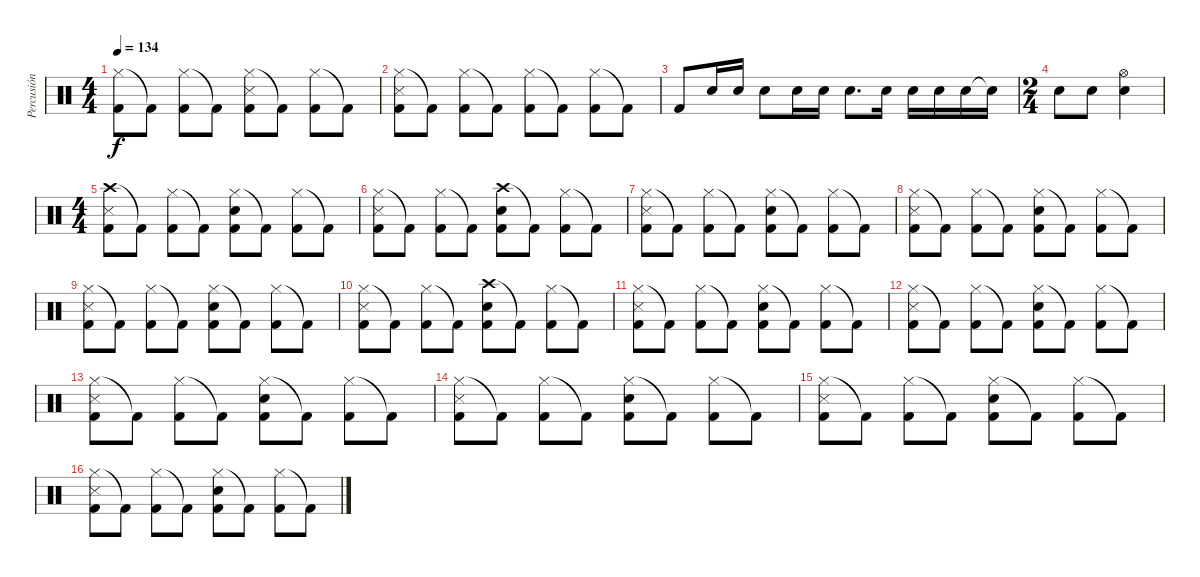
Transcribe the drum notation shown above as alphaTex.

\track ("Percusión" "Percusión") {instrument percussion}
\staff {score}
\articulation defaults
\ts (4 4)
\tempo 134
\clef neutral
\ks c
("Hi-Hat (closed)" "Kick (hit) 2").8{dy f} "Kick (hit) 2"{t}.8 ("Hi-Hat (closed)" "Kick (hit) 2").8 "Kick (hit) 2"{t}.8 ("Hi-Hat (closed)" "Snare (side stick) 3" "Kick (hit) 2").8 "Kick (hit) 2"{t}.8 ("Hi-Hat (closed)" "Kick (hit) 2").8 "Kick (hit) 2"{t}.8 |
("Hi-Hat (closed)" "Snare (side stick) 3" "Kick (hit) 2").8 "Kick (hit) 2"{t}.8 ("Hi-Hat (closed)" "Kick (hit) 2").8 "Kick (hit) 2"{t}.8 ("Hi-Hat (closed)" "Kick (hit) 2").8 "Kick (hit) 2"{t}.8 ("Hi-Hat (closed)" "Kick (hit) 2").8 "Kick (hit) 2"{t}.8 |
"Kick (hit) 2".8 "Snare (hit) 2".16 "Snare (hit) 2".16 "Snare (hit) 2".8 "Snare (hit) 2".16 "Snare (hit) 2".16 "Snare (hit) 2".8{d} "Electric Snare (hit)".16 "Electric Snare (hit)".16 "Electric Snare (hit)".16 "Electric Snare (hit)".16 "Snare (hit)"{t}.16 |
\ts (2 4)
"Electric Snare (hit)".8 "Electric Snare (hit)".8 ("Hi-Hat (open)" "Electric Snare (hit)").4 |
\ts (4 4)
("Crash high (hit)" "Snare (side stick) 3" "Kick (hit) 2").8 "Kick (hit) 2"{t}.8 ("Hi-Hat (closed)" "Kick (hit) 2").8 "Kick (hit) 2"{t}.8 ("Hi-Hat (closed)" "Snare (hit) 2" "Kick (hit) 2").8 "Kick (hit) 2"{t}.8 ("Hi-Hat (closed)" "Kick (hit) 2").8 "Kick (hit) 2"{t}.8 |
("Hi-Hat (closed)" "Snare (side stick) 3" "Kick (hit) 2").8 "Kick (hit) 2"{t}.8 ("Hi-Hat (closed)" "Kick (hit) 2").8 "Kick (hit) 2"{t}.8 ("Crash high (hit)" "Snare (hit) 2" "Kick (hit) 2").8 "Kick (hit) 2"{t}.8 ("Hi-Hat (closed)" "Kick (hit) 2").8 "Kick (hit) 2"{t}.8 |
("Hi-Hat (closed)" "Snare (side stick) 3" "Kick (hit) 2").8 "Kick (hit) 2"{t}.8 ("Hi-Hat (closed)" "Kick (hit) 2").8 "Kick (hit) 2"{t}.8 ("Hi-Hat (closed)" "Snare (hit) 2" "Kick (hit) 2").8 "Kick (hit) 2"{t}.8 ("Hi-Hat (closed)" "Kick (hit) 2").8 "Kick (hit) 2"{t}.8 |
("Hi-Hat (closed)" "Snare (side stick) 3" "Kick (hit) 2").8 "Kick (hit) 2"{t}.8 ("Hi-Hat (closed)" "Kick (hit) 2").8 "Kick (hit) 2"{t}.8 ("Hi-Hat (closed)" "Snare (hit) 2" "Kick (hit) 2").8 "Kick (hit) 2"{t}.8 ("Hi-Hat (closed)" "Kick (hit) 2").8 "Kick (hit) 2"{t}.8 |
("Hi-Hat (closed)" "Snare (side stick) 3" "Kick (hit) 2").8 "Kick (hit) 2"{t}.8 ("Hi-Hat (closed)" "Kick (hit) 2").8 "Kick (hit) 2"{t}.8 ("Hi-Hat (closed)" "Snare (hit) 2" "Kick (hit) 2").8 "Kick (hit) 2"{t}.8 ("Hi-Hat (closed)" "Kick (hit) 2").8 "Kick (hit) 2"{t}.8 |
("Hi-Hat (closed)" "Snare (side stick) 3" "Kick (hit) 2").8 "Kick (hit) 2"{t}.8 ("Hi-Hat (closed)" "Kick (hit) 2").8 "Kick (hit) 2"{t}.8 ("Crash high (hit)" "Snare (hit) 2" "Kick (hit) 2").8 "Kick (hit) 2"{t}.8 ("Hi-Hat (closed)" "Kick (hit) 2").8 "Kick (hit) 2"{t}.8 |
("Hi-Hat (closed)" "Snare (side stick) 3" "Kick (hit) 2").8 "Kick (hit) 2"{t}.8 ("Hi-Hat (closed)" "Kick (hit) 2").8 "Kick (hit) 2"{t}.8 ("Hi-Hat (closed)" "Snare (hit) 2" "Kick (hit) 2").8 "Kick (hit) 2"{t}.8 ("Hi-Hat (closed)" "Kick (hit) 2").8 "Kick (hit) 2"{t}.8 |
("Hi-Hat (closed)" "Snare (side stick) 3" "Kick (hit) 2").8 "Kick (hit) 2"{t}.8 ("Hi-Hat (closed)" "Kick (hit) 2").8 "Kick (hit) 2"{t}.8 ("Hi-Hat (closed)" "Snare (hit) 2" "Kick (hit) 2").8 "Kick (hit) 2"{t}.8 ("Hi-Hat (closed)" "Kick (hit) 2").8 "Kick (hit) 2"{t}.8 |
("Hi-Hat (closed)" "Snare (side stick) 3" "Kick (hit) 2").8 "Kick (hit) 2"{t}.8 ("Hi-Hat (closed)" "Kick (hit) 2").8 "Kick (hit) 2"{t}.8 ("Hi-Hat (closed)" "Snare (hit) 2" "Kick (hit) 2").8 "Kick (hit) 2"{t}.8 ("Hi-Hat (closed)" "Kick (hit) 2").8 "Kick (hit) 2"{t}.8 |
("Hi-Hat (closed)" "Snare (side stick) 3" "Kick (hit) 2").8 "Kick (hit) 2"{t}.8 ("Hi-Hat (closed)" "Kick (hit) 2").8 "Kick (hit) 2"{t}.8 ("Hi-Hat (closed)" "Snare (hit) 2" "Kick (hit) 2").8 "Kick (hit) 2"{t}.8 ("Hi-Hat (closed)" "Kick (hit) 2").8 "Kick (hit) 2"{t}.8 |
("Hi-Hat (closed)" "Snare (side stick) 3" "Kick (hit) 2").8 "Kick (hit) 2"{t}.8 ("Hi-Hat (closed)" "Kick (hit) 2").8 "Kick (hit) 2"{t}.8 ("Hi-Hat (closed)" "Snare (hit) 2" "Kick (hit) 2").8 "Kick (hit) 2"{t}.8 ("Hi-Hat (closed)" "Kick (hit) 2").8 "Kick (hit) 2"{t}.8 |
("Hi-Hat (closed)" "Snare (side stick) 3" "Kick (hit) 2").8 "Kick (hit) 2"{t}.8 ("Hi-Hat (closed)" "Kick (hit) 2").8 "Kick (hit) 2"{t}.8 ("Hi-Hat (closed)" "Snare (hit) 2" "Kick (hit) 2").8 "Kick (hit) 2"{t}.8 ("Hi-Hat (closed)" "Kick (hit) 2").8 "Kick (hit) 2"{t}.8
